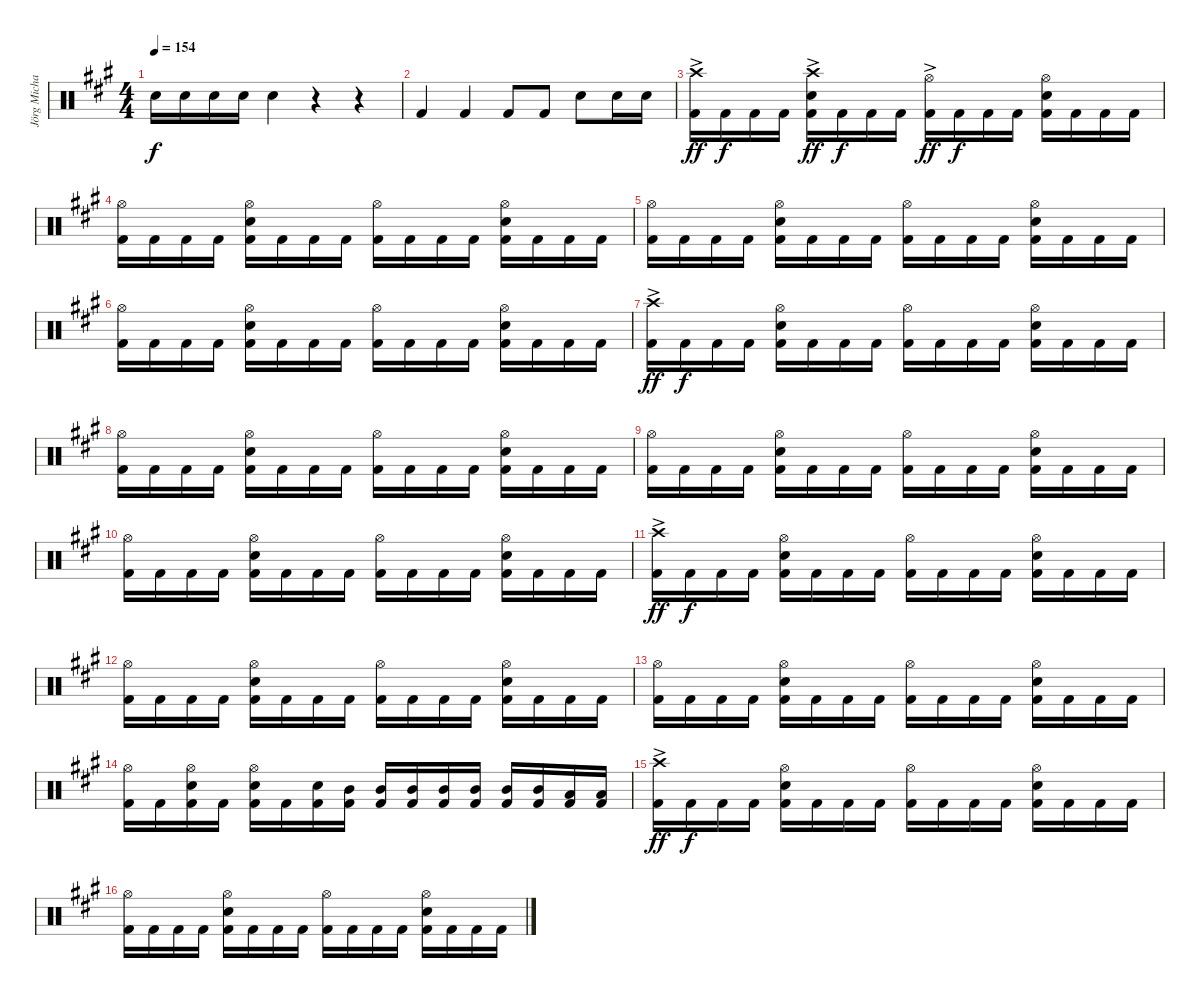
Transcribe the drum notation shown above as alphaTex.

\track ("Jörg Michael" "Jörg Micha") {instrument percussion}
\staff {score}
\articulation defaults
\ts (4 4)
\tempo 154
\clef neutral
\ks a "Electric Snare (hit)".16{dy f} "Electric Snare (hit)".16 "Electric Snare (hit)".16 "Electric Snare (hit)".16 "Electric Snare (hit)".4
r.4 r.4 |
"Kick (hit) 2".4 "Kick (hit) 2".4 "Kick (hit) 2".8 "Kick (hit) 2".8 "Electric Snare (hit)".8 "Electric Snare (hit)".16 "Electric Snare (hit)".16 |
("Crash high (hit)"{ac} "Kick (hit) 2"{ac}).16{dy ff} "Kick (hit) 2".16{dy f} "Kick (hit) 2".16 "Kick (hit) 2".16 ("Electric Snare (hit)"{ac} "Kick (hit) 2"{ac} "Crash high (hit)"{ac}).16{dy ff} "Kick (hit) 2".16{dy f} "Kick (hit) 2".16 "Kick (hit) 2".16 ("Kick (hit) 2"{ac} "Hi-Hat (open)").16{dy ff} "Kick (hit) 2".16{dy f} "Kick (hit) 2".16 "Kick (hit) 2".16 ("Electric Snare (hit)" "Kick (hit) 2" "Hi-Hat (open)").16 "Kick (hit) 2".16 "Kick (hit) 2".16 "Kick (hit) 2".16 |
("Hi-Hat (open)" "Kick (hit) 2").16 "Kick (hit) 2".16 "Kick (hit) 2".16 "Kick (hit) 2".16 ("Electric Snare (hit)" "Kick (hit) 2" "Hi-Hat (open)").16 "Kick (hit) 2".16 "Kick (hit) 2".16 "Kick (hit) 2".16 ("Kick (hit) 2" "Hi-Hat (open)").16 "Kick (hit) 2".16 "Kick (hit) 2".16 "Kick (hit) 2".16 ("Electric Snare (hit)" "Kick (hit) 2" "Hi-Hat (open)").16 "Kick (hit) 2".16 "Kick (hit) 2".16 "Kick (hit) 2".16 |
("Hi-Hat (open)" "Kick (hit) 2").16 "Kick (hit) 2".16 "Kick (hit) 2".16 "Kick (hit) 2".16 ("Electric Snare (hit)" "Kick (hit) 2" "Hi-Hat (open)").16 "Kick (hit) 2".16 "Kick (hit) 2".16 "Kick (hit) 2".16 ("Kick (hit) 2" "Hi-Hat (open)").16 "Kick (hit) 2".16 "Kick (hit) 2".16 "Kick (hit) 2".16 ("Electric Snare (hit)" "Kick (hit) 2" "Hi-Hat (open)").16 "Kick (hit) 2".16 "Kick (hit) 2".16 "Kick (hit) 2".16 |
("Hi-Hat (open)" "Kick (hit) 2").16 "Kick (hit) 2".16 "Kick (hit) 2".16 "Kick (hit) 2".16 ("Electric Snare (hit)" "Kick (hit) 2" "Hi-Hat (open)").16 "Kick (hit) 2".16 "Kick (hit) 2".16 "Kick (hit) 2".16 ("Kick (hit) 2" "Hi-Hat (open)").16 "Kick (hit) 2".16 "Kick (hit) 2".16 "Kick (hit) 2".16 ("Electric Snare (hit)" "Kick (hit) 2" "Hi-Hat (open)").16 "Kick (hit) 2".16 "Kick (hit) 2".16 "Kick (hit) 2".16 |
("Crash high (hit)"{ac} "Kick (hit) 2"{ac}).16{dy ff} "Kick (hit) 2".16{dy f} "Kick (hit) 2".16 "Kick (hit) 2".16 ("Electric Snare (hit)" "Kick (hit) 2" "Hi-Hat (open)").16 "Kick (hit) 2".16 "Kick (hit) 2".16 "Kick (hit) 2".16 ("Kick (hit) 2" "Hi-Hat (open)").16 "Kick (hit) 2".16 "Kick (hit) 2".16 "Kick (hit) 2".16 ("Electric Snare (hit)" "Kick (hit) 2" "Hi-Hat (open)").16 "Kick (hit) 2".16 "Kick (hit) 2".16 "Kick (hit) 2".16 |
("Hi-Hat (open)" "Kick (hit) 2").16 "Kick (hit) 2".16 "Kick (hit) 2".16 "Kick (hit) 2".16 ("Electric Snare (hit)" "Kick (hit) 2" "Hi-Hat (open)").16 "Kick (hit) 2".16 "Kick (hit) 2".16 "Kick (hit) 2".16 ("Kick (hit) 2" "Hi-Hat (open)").16 "Kick (hit) 2".16 "Kick (hit) 2".16 "Kick (hit) 2".16 ("Electric Snare (hit)" "Kick (hit) 2" "Hi-Hat (open)").16 "Kick (hit) 2".16 "Kick (hit) 2".16 "Kick (hit) 2".16 |
("Hi-Hat (open)" "Kick (hit) 2").16 "Kick (hit) 2".16 "Kick (hit) 2".16 "Kick (hit) 2".16 ("Electric Snare (hit)" "Kick (hit) 2" "Hi-Hat (open)").16 "Kick (hit) 2".16 "Kick (hit) 2".16 "Kick (hit) 2".16 ("Kick (hit) 2" "Hi-Hat (open)").16 "Kick (hit) 2".16 "Kick (hit) 2".16 "Kick (hit) 2".16 ("Electric Snare (hit)" "Kick (hit) 2" "Hi-Hat (open)").16 "Kick (hit) 2".16 "Kick (hit) 2".16 "Kick (hit) 2".16 |
("Hi-Hat (open)" "Kick (hit) 2").16 "Kick (hit) 2".16 "Kick (hit) 2".16 "Kick (hit) 2".16 ("Electric Snare (hit)" "Kick (hit) 2" "Hi-Hat (open)").16 "Kick (hit) 2".16 "Kick (hit) 2".16 "Kick (hit) 2".16 ("Kick (hit) 2" "Hi-Hat (open)").16 "Kick (hit) 2".16 "Kick (hit) 2".16 "Kick (hit) 2".16 ("Electric Snare (hit)" "Kick (hit) 2" "Hi-Hat (open)").16 "Kick (hit) 2".16 "Kick (hit) 2".16 "Kick (hit) 2".16 |
("Crash high (hit)"{ac} "Kick (hit) 2"{ac}).16{dy ff} "Kick (hit) 2".16{dy f} "Kick (hit) 2".16 "Kick (hit) 2".16 ("Electric Snare (hit)" "Kick (hit) 2" "Hi-Hat (open)").16 "Kick (hit) 2".16 "Kick (hit) 2".16 "Kick (hit) 2".16 ("Kick (hit) 2" "Hi-Hat (open)").16 "Kick (hit) 2".16 "Kick (hit) 2".16 "Kick (hit) 2".16 ("Electric Snare (hit)" "Kick (hit) 2" "Hi-Hat (open)").16 "Kick (hit) 2".16 "Kick (hit) 2".16 "Kick (hit) 2".16 |
("Hi-Hat (open)" "Kick (hit) 2").16 "Kick (hit) 2".16 "Kick (hit) 2".16 "Kick (hit) 2".16 ("Electric Snare (hit)" "Kick (hit) 2" "Hi-Hat (open)").16 "Kick (hit) 2".16 "Kick (hit) 2".16 "Kick (hit) 2".16 ("Kick (hit) 2" "Hi-Hat (open)").16 "Kick (hit) 2".16 "Kick (hit) 2".16 "Kick (hit) 2".16 ("Electric Snare (hit)" "Kick (hit) 2" "Hi-Hat (open)").16 "Kick (hit) 2".16 "Kick (hit) 2".16 "Kick (hit) 2".16 |
("Hi-Hat (open)" "Kick (hit) 2").16 "Kick (hit) 2".16 "Kick (hit) 2".16 "Kick (hit) 2".16 ("Electric Snare (hit)" "Kick (hit) 2" "Hi-Hat (open)").16 "Kick (hit) 2".16 "Kick (hit) 2".16 "Kick (hit) 2".16 ("Kick (hit) 2" "Hi-Hat (open)").16 "Kick (hit) 2".16 "Kick (hit) 2".16 "Kick (hit) 2".16 ("Electric Snare (hit)" "Kick (hit) 2" "Hi-Hat (open)").16 "Kick (hit) 2".16 "Kick (hit) 2".16 "Kick (hit) 2".16 |
("Hi-Hat (open)" "Kick (hit) 2").16 "Kick (hit) 2".16 ("Electric Snare (hit)" "Kick (hit) 2" "Hi-Hat (open)").16 "Kick (hit) 2".16 ("Electric Snare (hit)" "Kick (hit) 2" "Hi-Hat (open)").16 "Kick (hit) 2".16 ("Kick (hit) 2" "Electric Snare (hit)").16 ("Kick (hit) 2" "Mid Tom (hit)").16 ("Kick (hit) 2" "Mid Tom (hit)").16 ("Kick (hit) 2" "Mid Tom (hit)").16 ("Kick (hit) 2" "Mid Tom (hit)").16 ("Kick (hit) 2" "Mid Tom (hit)").16 ("Kick (hit) 2" "Mid Tom (hit)").16 ("Kick (hit) 2" "Mid Tom (hit)").16 ("Kick (hit) 2" "Low Tom (hit)").16 ("Kick (hit) 2" "Low Tom (hit)").16 |
("Crash high (hit)"{ac} "Kick (hit) 2"{ac}).16{dy ff} "Kick (hit) 2".16{dy f} "Kick (hit) 2".16 "Kick (hit) 2".16 ("Electric Snare (hit)" "Kick (hit) 2" "Hi-Hat (open)").16 "Kick (hit) 2".16 "Kick (hit) 2".16 "Kick (hit) 2".16 ("Kick (hit) 2" "Hi-Hat (open)").16 "Kick (hit) 2".16 "Kick (hit) 2".16 "Kick (hit) 2".16 ("Electric Snare (hit)" "Kick (hit) 2" "Hi-Hat (open)").16 "Kick (hit) 2".16 "Kick (hit) 2".16 "Kick (hit) 2".16 |
("Hi-Hat (open)" "Kick (hit) 2").16 "Kick (hit) 2".16 "Kick (hit) 2".16 "Kick (hit) 2".16 ("Electric Snare (hit)" "Kick (hit) 2" "Hi-Hat (open)").16 "Kick (hit) 2".16 "Kick (hit) 2".16 "Kick (hit) 2".16 ("Kick (hit) 2" "Hi-Hat (open)").16 "Kick (hit) 2".16 "Kick (hit) 2".16 "Kick (hit) 2".16 ("Electric Snare (hit)" "Kick (hit) 2" "Hi-Hat (open)").16 "Kick (hit) 2".16 "Kick (hit) 2".16 "Kick (hit) 2".16
